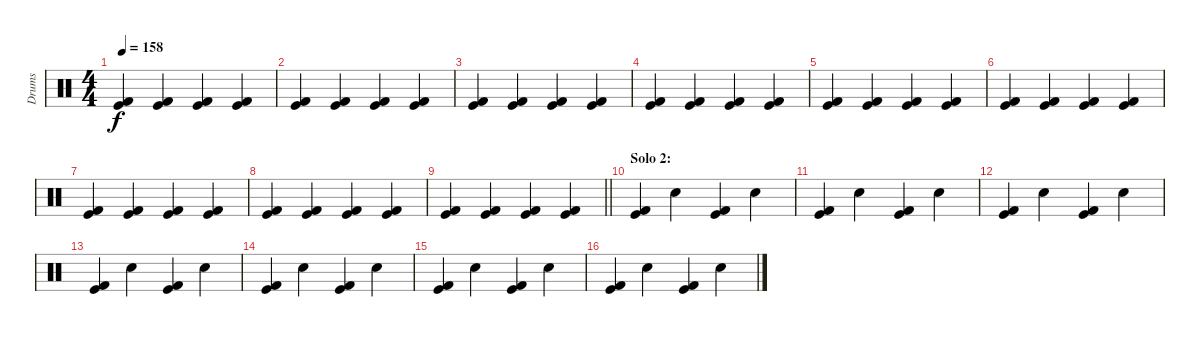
\track ("Drums" "Drums") {instrument percussion}
\staff {score}
\articulation defaults
\ts (4 4)
\tempo 158
\clef neutral
\ks c
("Kick (hit)" "Kick (hit) 2").4{dy f} ("Kick (hit)" "Kick (hit) 2").4 ("Kick (hit)" "Kick (hit) 2").4 ("Kick (hit)" "Kick (hit) 2").4 |
("Kick (hit)" "Kick (hit) 2").4 ("Kick (hit)" "Kick (hit) 2").4 ("Kick (hit)" "Kick (hit) 2").4 ("Kick (hit)" "Kick (hit) 2").4 |
("Kick (hit)" "Kick (hit) 2").4 ("Kick (hit)" "Kick (hit) 2").4 ("Kick (hit)" "Kick (hit) 2").4 ("Kick (hit)" "Kick (hit) 2").4 |
("Kick (hit)" "Kick (hit) 2").4 ("Kick (hit)" "Kick (hit) 2").4 ("Kick (hit)" "Kick (hit) 2").4 ("Kick (hit)" "Kick (hit) 2").4 |
("Kick (hit)" "Kick (hit) 2").4 ("Kick (hit)" "Kick (hit) 2").4 ("Kick (hit)" "Kick (hit) 2").4 ("Kick (hit)" "Kick (hit) 2").4 |
("Kick (hit)" "Kick (hit) 2").4 ("Kick (hit)" "Kick (hit) 2").4 ("Kick (hit)" "Kick (hit) 2").4 ("Kick (hit)" "Kick (hit) 2").4 |
("Kick (hit)" "Kick (hit) 2").4 ("Kick (hit)" "Kick (hit) 2").4 ("Kick (hit)" "Kick (hit) 2").4 ("Kick (hit)" "Kick (hit) 2").4 |
("Kick (hit)" "Kick (hit) 2").4 ("Kick (hit)" "Kick (hit) 2").4 ("Kick (hit)" "Kick (hit) 2").4 ("Kick (hit)" "Kick (hit) 2").4 |
\barLineRight lightlight
("Kick (hit)" "Kick (hit) 2").4 ("Kick (hit)" "Kick (hit) 2").4 ("Kick (hit)" "Kick (hit) 2").4 ("Kick (hit)" "Kick (hit) 2").4 |
\section ("" "Solo 2:")
("Kick (hit)" "Kick (hit) 2").4 "Snare (hit) 2".4 ("Kick (hit)" "Kick (hit) 2").4 "Snare (hit) 2".4 |
("Kick (hit)" "Kick (hit) 2").4 "Snare (hit) 2".4 ("Kick (hit)" "Kick (hit) 2").4 "Snare (hit) 2".4 |
("Kick (hit)" "Kick (hit) 2").4 "Snare (hit) 2".4 ("Kick (hit)" "Kick (hit) 2").4 "Snare (hit) 2".4 |
("Kick (hit)" "Kick (hit) 2").4 "Snare (hit) 2".4 ("Kick (hit)" "Kick (hit) 2").4 "Snare (hit) 2".4 |
("Kick (hit)" "Kick (hit) 2").4 "Snare (hit) 2".4 ("Kick (hit)" "Kick (hit) 2").4 "Snare (hit) 2".4 |
("Kick (hit)" "Kick (hit) 2").4 "Snare (hit) 2".4 ("Kick (hit)" "Kick (hit) 2").4 "Snare (hit) 2".4 |
("Kick (hit)" "Kick (hit) 2").4 "Snare (hit) 2".4 ("Kick (hit)" "Kick (hit) 2").4 "Snare (hit) 2".4
